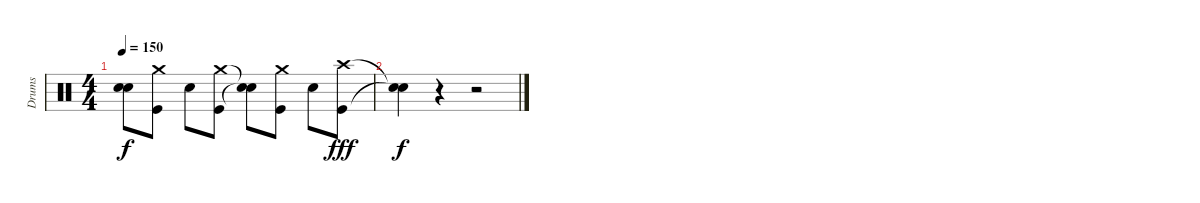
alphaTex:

\track ("Drums" "Drums") {instrument percussion}
\staff {score}
\articulation defaults
\ts (4 4)
\tempo 150
\clef neutral
\ks c
("Snare (hit)"{t} "Snare (hit)"{t}).8{dy f} ("Crash medium (hit)" "Kick (hit)").8 "Electric Snare (hit)".8 ("Crash medium (hit)" "Kick (hit)").8 ("Snare (hit)"{t} "Snare (hit)"{t}).8 ("Crash medium (hit)" "Kick (hit)").8 "Electric Snare (hit)".8 ("Crash high (hit)" "Kick (hit)").8{dy fff} |
("Snare (hit)"{t} "Snare (hit)"{t}).4{dy f} r.4 r.2
